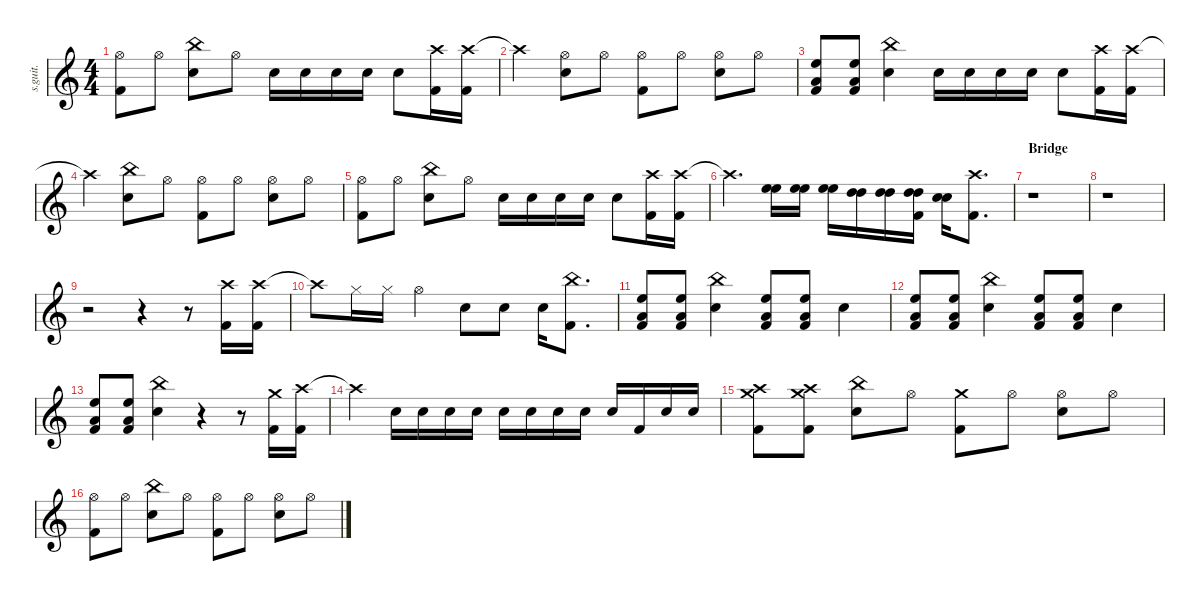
\defaultSystemsLayout 4
\hideDynamics
\bracketExtendMode nobrackets
\track ("Mountain" "s.guit.") {instrument percussion}
\staff {score}
\articulation defaults
\ts (4 4)
\tempo (88 hide)
\clef g2
\ks c
("Hi-Hat (open)" "Kick (hit) 2").8{dy f} "Hi-Hat (open)".8 ("China (hit)" "Snare (hit) 2").8 "Hi-Hat (open)".8 "Snare (hit) 2".16 "Snare (hit) 2".16 "Snare (hit) 2".16 "Snare (hit) 2".16 "Snare (hit) 2".8 ("Crash high (hit)" "Kick (hit) 2").16 ("Crash high (hit)" "Kick (hit) 2").16 |
"Crash high (hit)"{t}.4 ("Hi-Hat (open)" "Snare (hit) 2").8 "Hi-Hat (open)".8 ("Hi-Hat (open)" "Kick (hit) 2").8 "Hi-Hat (open)".8 ("Hi-Hat (open)" "Snare (hit) 2").8 "Hi-Hat (open)".8 |
("High Floor Tom (hit)" "Low Tom (hit)" "Kick (hit) 2").8 ("High Floor Tom (hit)" "Low Tom (hit)" "Kick (hit) 2").8 ("China (hit)" "Snare (hit) 2").4 "Snare (hit) 2".16 "Snare (hit) 2".16 "Snare (hit) 2".16 "Snare (hit) 2".16 "Snare (hit) 2".8 ("Crash high (hit)" "Kick (hit) 2").16 ("Crash high (hit)" "Kick (hit) 2").16 |
"Crash high (hit)"{t}.4 ("China (hit)" "Snare (hit) 2").8 "Hi-Hat (open)".8 ("Hi-Hat (open)" "Kick (hit) 2").8 "Hi-Hat (open)".8 ("Hi-Hat (open)" "Snare (hit) 2").8 "Hi-Hat (open)".8 |
("Hi-Hat (open)" "Kick (hit) 2").8 "Hi-Hat (open)".8 ("China (hit)" "Snare (hit) 2").8 "Hi-Hat (open)".8 "Snare (hit) 2".16 "Snare (hit) 2".16 "Snare (hit) 2".16 "Snare (hit) 2".16 "Snare (hit) 2".8 ("Crash high (hit)" "Kick (hit) 2").16 ("Crash high (hit)" "Kick (hit) 2").16 |
"Crash high (hit)"{t}.4{d} ("High Floor Tom (hit)" "High Floor Tom (hit)").16 ("High Floor Tom (hit)" "High Floor Tom (hit)").16 ("High Floor Tom (hit)" "High Floor Tom (hit)").16 ("High Tom (hit)" "High Tom (hit)").16 ("High Tom (hit)" "High Tom (hit)").16 ("High Tom (hit)" "High Tom (hit)" "Kick (hit) 2").16 ("Snare (hit) 2" "Snare (hit) 2").16{bu 30} ("Crash high (hit)" "Kick (hit) 2").8{d} |
\section ("" "Bridge")
r.1 |
r.1 |
r.2 r.4 r.8 ("Crash high (hit)" "Kick (hit) 2").16 ("Crash high (hit)" "Kick (hit) 2").16 |
"Crash high (hit)"{t}.8 "Hi-Hat (closed)".16 "Hi-Hat (closed)".16 "Hi-Hat (open)".4 "Snare (hit) 2".8 "Snare (hit) 2".8 "Snare (hit) 2".16 ("China (hit)" "Kick (hit) 2").8{d} |
("High Floor Tom (hit)" "Low Tom (hit)" "Kick (hit) 2").8 ("High Floor Tom (hit)" "Low Tom (hit)" "Kick (hit) 2").8 ("China (hit)" "Snare (hit) 2").4 ("High Floor Tom (hit)" "Low Tom (hit)" "Kick (hit) 2").8 ("High Floor Tom (hit)" "Low Tom (hit)" "Kick (hit) 2").8 "Snare (hit) 2".4 |
("High Floor Tom (hit)" "Low Tom (hit)" "Kick (hit) 2").8 ("High Floor Tom (hit)" "Low Tom (hit)" "Kick (hit) 2").8 ("China (hit)" "Snare (hit) 2").4 ("High Floor Tom (hit)" "Low Tom (hit)" "Kick (hit) 2").8 ("High Floor Tom (hit)" "Low Tom (hit)" "Kick (hit) 2").8 "Snare (hit) 2".4 |
("High Floor Tom (hit)" "Low Tom (hit)" "Kick (hit) 2").8 ("High Floor Tom (hit)" "Low Tom (hit)" "Kick (hit) 2").8 ("China (hit)" "Snare (hit) 2").4 r.4 r.8 ("Crash medium (hit)" "Kick (hit) 2").16 ("Crash high (hit)" "Kick (hit) 2").16 |
"Crash high (hit)"{t}.4 "Snare (hit) 2".16 "Snare (hit) 2".16 "Snare (hit) 2".16 "Snare (hit) 2".16 "Snare (hit) 2".16 "Snare (hit) 2".16 "Snare (hit) 2".16 "Snare (hit) 2".16 "Snare (hit) 2".16 "Kick (hit) 2".16 "Snare (hit) 2".16 "Snare (hit) 2".16 |
("Crash medium (hit)" "Crash high (hit)" "Kick (hit) 2").8 ("Crash medium (hit)" "Crash high (hit)" "Kick (hit) 2").8 ("China (hit)" "Snare (hit) 2").8 "Hi-Hat (open)".8 ("Crash medium (hit)" "Kick (hit) 2").8 "Hi-Hat (open)".8 ("Hi-Hat (open)" "Snare (hit) 2").8 "Hi-Hat (open)".8 |
("Hi-Hat (open)" "Kick (hit) 2").8 "Hi-Hat (open)".8 ("China (hit)" "Snare (hit) 2").8 "Hi-Hat (open)".8 ("Hi-Hat (open)" "Kick (hit) 2").8 "Hi-Hat (open)".8 ("Hi-Hat (open)" "Snare (hit) 2").8 "Hi-Hat (open)".8
